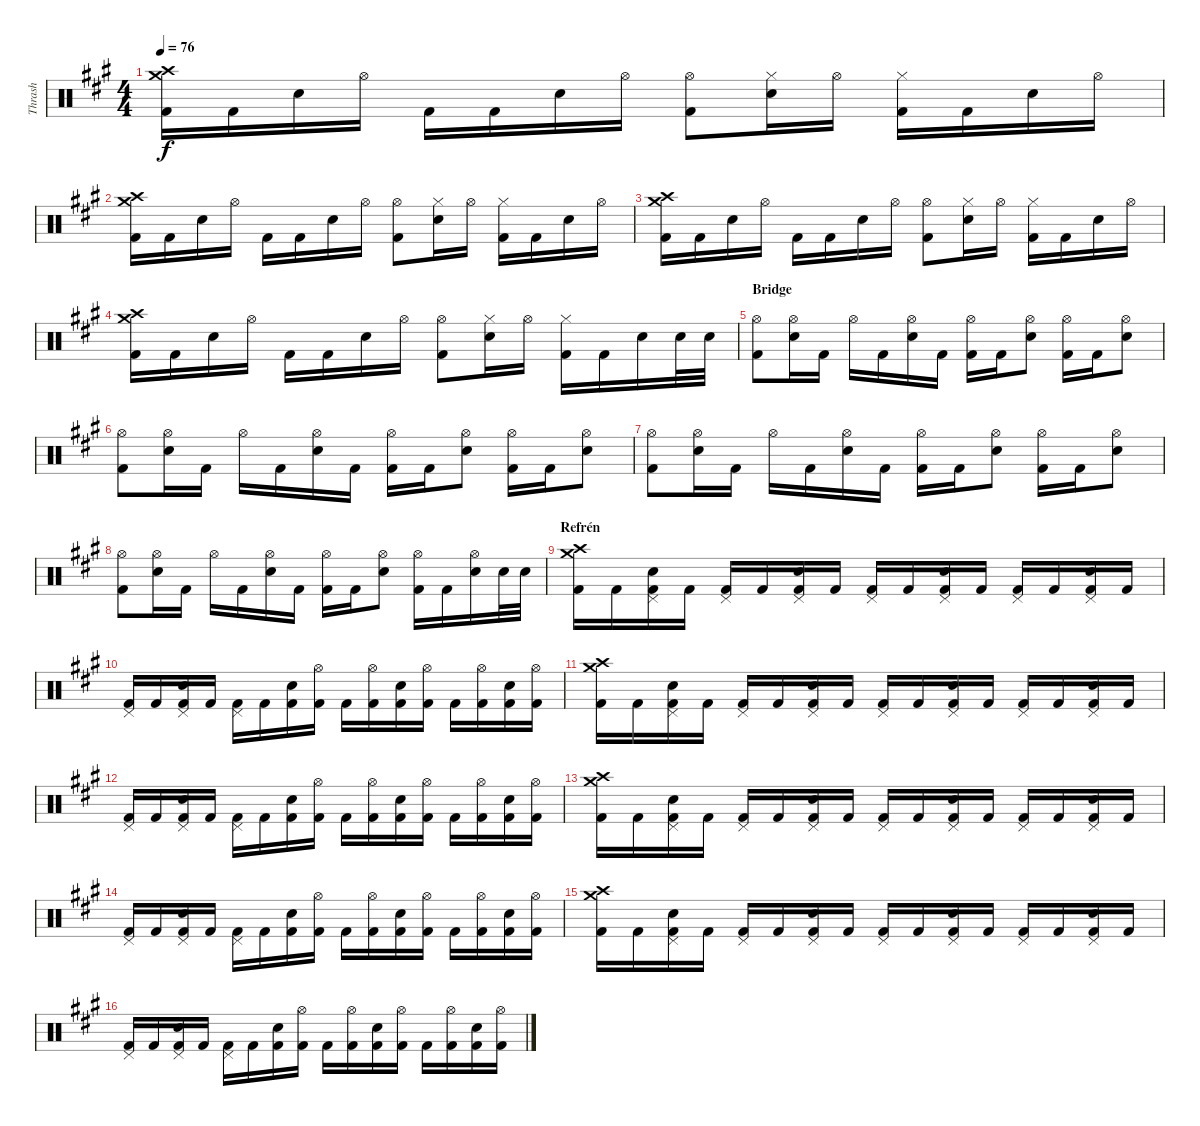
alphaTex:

\track ("Thrash" "Thrash") {instrument percussion}
\staff {score}
\articulation defaults
\ts (4 4)
\tempo 76
\clef neutral
\ks a
("Crash medium (hit)" "Crash high (hit)" "Kick (hit) 2").16{dy f} "Kick (hit) 2".16 "Snare (hit) 2".16 "Hi-Hat (open)".16 "Kick (hit) 2".16 "Kick (hit) 2".16 "Snare (hit) 2".16 "Hi-Hat (open)".16 ("Hi-Hat (open)" "Kick (hit) 2").8 ("Hi-Hat (closed)" "Snare (hit) 2").16 "Hi-Hat (open)".16 ("Hi-Hat (closed)" "Kick (hit) 2").16 "Kick (hit) 2".16 "Snare (hit) 2".16 "Hi-Hat (open)".16 |
("Crash medium (hit)" "Crash high (hit)" "Kick (hit) 2").16 "Kick (hit) 2".16 "Snare (hit) 2".16 "Hi-Hat (open)".16 "Kick (hit) 2".16 "Kick (hit) 2".16 "Snare (hit) 2".16 "Hi-Hat (open)".16 ("Hi-Hat (open)" "Kick (hit) 2").8 ("Hi-Hat (closed)" "Snare (hit) 2").16 "Hi-Hat (open)".16 ("Hi-Hat (closed)" "Kick (hit) 2").16 "Kick (hit) 2".16 "Snare (hit) 2".16 "Hi-Hat (open)".16 |
("Crash medium (hit)" "Crash high (hit)" "Kick (hit) 2").16 "Kick (hit) 2".16 "Snare (hit) 2".16 "Hi-Hat (open)".16 "Kick (hit) 2".16 "Kick (hit) 2".16 "Snare (hit) 2".16 "Hi-Hat (open)".16 ("Hi-Hat (open)" "Kick (hit) 2").8 ("Hi-Hat (closed)" "Snare (hit) 2").16 "Hi-Hat (open)".16 ("Hi-Hat (closed)" "Kick (hit) 2").16 "Kick (hit) 2".16 "Snare (hit) 2".16 "Hi-Hat (open)".16 |
("Crash medium (hit)" "Crash high (hit)" "Kick (hit) 2").16 "Kick (hit) 2".16 "Snare (hit) 2".16 "Hi-Hat (open)".16 "Kick (hit) 2".16 "Kick (hit) 2".16 "Snare (hit) 2".16 "Hi-Hat (open)".16 ("Hi-Hat (open)" "Kick (hit) 2").8 ("Hi-Hat (closed)" "Snare (hit) 2").16 "Hi-Hat (open)".16 ("Hi-Hat (closed)" "Kick (hit) 2").16 "Kick (hit) 2".16 "Snare (hit) 2".16 "Snare (hit) 2".32 "Snare (hit) 2".32 |
\section ("" "Bridge")
("Hi-Hat (open)" "Kick (hit) 2").8 ("Hi-Hat (open)" "Snare (hit) 2").16 "Kick (hit) 2".16 "Hi-Hat (open)".16 "Kick (hit) 2".16 ("Hi-Hat (open)" "Snare (hit) 2").16 "Kick (hit) 2".16 ("Hi-Hat (open)" "Kick (hit) 2").16 "Kick (hit) 2".16 ("Hi-Hat (open)" "Snare (hit) 2").8 ("Hi-Hat (open)" "Kick (hit) 2").16 "Kick (hit) 2".16 ("Hi-Hat (open)" "Snare (hit) 2").8 |
("Hi-Hat (open)" "Kick (hit) 2").8 ("Hi-Hat (open)" "Snare (hit) 2").16 "Kick (hit) 2".16 "Hi-Hat (open)".16 "Kick (hit) 2".16 ("Hi-Hat (open)" "Snare (hit) 2").16 "Kick (hit) 2".16 ("Hi-Hat (open)" "Kick (hit) 2").16 "Kick (hit) 2".16 ("Hi-Hat (open)" "Snare (hit) 2").8 ("Hi-Hat (open)" "Kick (hit) 2").16 "Kick (hit) 2".16 ("Hi-Hat (open)" "Snare (hit) 2").8 |
("Hi-Hat (open)" "Kick (hit) 2").8 ("Hi-Hat (open)" "Snare (hit) 2").16 "Kick (hit) 2".16 "Hi-Hat (open)".16 "Kick (hit) 2".16 ("Hi-Hat (open)" "Snare (hit) 2").16 "Kick (hit) 2".16 ("Hi-Hat (open)" "Kick (hit) 2").16 "Kick (hit) 2".16 ("Hi-Hat (open)" "Snare (hit) 2").8 ("Hi-Hat (open)" "Kick (hit) 2").16 "Kick (hit) 2".16 ("Hi-Hat (open)" "Snare (hit) 2").8 |
("Hi-Hat (open)" "Kick (hit) 2").8 ("Hi-Hat (open)" "Snare (hit) 2").16 "Kick (hit) 2".16 "Hi-Hat (open)".16 "Kick (hit) 2".16 ("Hi-Hat (open)" "Snare (hit) 2").16 "Kick (hit) 2".16 ("Hi-Hat (open)" "Kick (hit) 2").16 "Kick (hit) 2".16 ("Hi-Hat (open)" "Snare (hit) 2").8 ("Hi-Hat (open)" "Kick (hit) 2").16 "Kick (hit) 2".16 ("Hi-Hat (open)" "Snare (hit) 2").16 "Snare (hit) 2".32 "Snare (hit) 2".32 |
\section ("" "Refrén")
("Crash medium (hit)" "Crash high (hit)" "Kick (hit) 2").16 "Kick (hit) 2".16 ("Pedal Hi-Hat (hit)" "Snare (hit) 2" "Kick (hit) 2").16 "Kick (hit) 2".16 ("Pedal Hi-Hat (hit)" "Kick (hit) 2").16 "Kick (hit) 2".16 ("Pedal Hi-Hat (hit)" "Snare (hit) 2" "Kick (hit) 2").16 "Kick (hit) 2".16 ("Pedal Hi-Hat (hit)" "Kick (hit) 2").16 "Kick (hit) 2".16 ("Pedal Hi-Hat (hit)" "Snare (hit) 2" "Kick (hit) 2").16 "Kick (hit) 2".16 ("Pedal Hi-Hat (hit)" "Kick (hit) 2").16 "Kick (hit) 2".16 ("Pedal Hi-Hat (hit)" "Snare (hit) 2" "Kick (hit) 2").16 "Kick (hit) 2".16 |
("Pedal Hi-Hat (hit)" "Kick (hit) 2").16 "Kick (hit) 2".16 ("Pedal Hi-Hat (hit)" "Snare (hit) 2" "Kick (hit) 2").16 "Kick (hit) 2".16 ("Pedal Hi-Hat (hit)" "Kick (hit) 2").16 "Kick (hit) 2".16 ("Snare (hit) 2" "Kick (hit) 2").16 ("Hi-Hat (open)" "Kick (hit) 2").16 "Kick (hit) 2".16 ("Hi-Hat (open)" "Kick (hit) 2").16 ("Snare (hit) 2" "Kick (hit) 2").16 ("Hi-Hat (open)" "Kick (hit) 2").16 "Kick (hit) 2".16 ("Hi-Hat (open)" "Kick (hit) 2").16 ("Snare (hit) 2" "Kick (hit) 2").16 ("Hi-Hat (open)" "Kick (hit) 2").16 |
("Crash medium (hit)" "Crash high (hit)" "Kick (hit) 2").16 "Kick (hit) 2".16 ("Pedal Hi-Hat (hit)" "Snare (hit) 2" "Kick (hit) 2").16 "Kick (hit) 2".16 ("Pedal Hi-Hat (hit)" "Kick (hit) 2").16 "Kick (hit) 2".16 ("Pedal Hi-Hat (hit)" "Snare (hit) 2" "Kick (hit) 2").16 "Kick (hit) 2".16 ("Pedal Hi-Hat (hit)" "Kick (hit) 2").16 "Kick (hit) 2".16 ("Pedal Hi-Hat (hit)" "Snare (hit) 2" "Kick (hit) 2").16 "Kick (hit) 2".16 ("Pedal Hi-Hat (hit)" "Kick (hit) 2").16 "Kick (hit) 2".16 ("Pedal Hi-Hat (hit)" "Snare (hit) 2" "Kick (hit) 2").16 "Kick (hit) 2".16 |
("Pedal Hi-Hat (hit)" "Kick (hit) 2").16 "Kick (hit) 2".16 ("Pedal Hi-Hat (hit)" "Snare (hit) 2" "Kick (hit) 2").16 "Kick (hit) 2".16 ("Pedal Hi-Hat (hit)" "Kick (hit) 2").16 "Kick (hit) 2".16 ("Snare (hit) 2" "Kick (hit) 2").16 ("Hi-Hat (open)" "Kick (hit) 2").16 "Kick (hit) 2".16 ("Hi-Hat (open)" "Kick (hit) 2").16 ("Snare (hit) 2" "Kick (hit) 2").16 ("Hi-Hat (open)" "Kick (hit) 2").16 "Kick (hit) 2".16 ("Hi-Hat (open)" "Kick (hit) 2").16 ("Snare (hit) 2" "Kick (hit) 2").16 ("Hi-Hat (open)" "Kick (hit) 2").16 |
("Crash medium (hit)" "Crash high (hit)" "Kick (hit) 2").16 "Kick (hit) 2".16 ("Pedal Hi-Hat (hit)" "Snare (hit) 2" "Kick (hit) 2").16 "Kick (hit) 2".16 ("Pedal Hi-Hat (hit)" "Kick (hit) 2").16 "Kick (hit) 2".16 ("Pedal Hi-Hat (hit)" "Snare (hit) 2" "Kick (hit) 2").16 "Kick (hit) 2".16 ("Pedal Hi-Hat (hit)" "Kick (hit) 2").16 "Kick (hit) 2".16 ("Pedal Hi-Hat (hit)" "Snare (hit) 2" "Kick (hit) 2").16 "Kick (hit) 2".16 ("Pedal Hi-Hat (hit)" "Kick (hit) 2").16 "Kick (hit) 2".16 ("Pedal Hi-Hat (hit)" "Snare (hit) 2" "Kick (hit) 2").16 "Kick (hit) 2".16 |
("Pedal Hi-Hat (hit)" "Kick (hit) 2").16 "Kick (hit) 2".16 ("Pedal Hi-Hat (hit)" "Snare (hit) 2" "Kick (hit) 2").16 "Kick (hit) 2".16 ("Pedal Hi-Hat (hit)" "Kick (hit) 2").16 "Kick (hit) 2".16 ("Snare (hit) 2" "Kick (hit) 2").16 ("Hi-Hat (open)" "Kick (hit) 2").16 "Kick (hit) 2".16 ("Hi-Hat (open)" "Kick (hit) 2").16 ("Snare (hit) 2" "Kick (hit) 2").16 ("Hi-Hat (open)" "Kick (hit) 2").16 "Kick (hit) 2".16 ("Hi-Hat (open)" "Kick (hit) 2").16 ("Snare (hit) 2" "Kick (hit) 2").16 ("Hi-Hat (open)" "Kick (hit) 2").16 |
("Crash medium (hit)" "Crash high (hit)" "Kick (hit) 2").16 "Kick (hit) 2".16 ("Pedal Hi-Hat (hit)" "Snare (hit) 2" "Kick (hit) 2").16 "Kick (hit) 2".16 ("Pedal Hi-Hat (hit)" "Kick (hit) 2").16 "Kick (hit) 2".16 ("Pedal Hi-Hat (hit)" "Snare (hit) 2" "Kick (hit) 2").16 "Kick (hit) 2".16 ("Pedal Hi-Hat (hit)" "Kick (hit) 2").16 "Kick (hit) 2".16 ("Pedal Hi-Hat (hit)" "Snare (hit) 2" "Kick (hit) 2").16 "Kick (hit) 2".16 ("Pedal Hi-Hat (hit)" "Kick (hit) 2").16 "Kick (hit) 2".16 ("Pedal Hi-Hat (hit)" "Snare (hit) 2" "Kick (hit) 2").16 "Kick (hit) 2".16 |
("Pedal Hi-Hat (hit)" "Kick (hit) 2").16 "Kick (hit) 2".16 ("Pedal Hi-Hat (hit)" "Snare (hit) 2" "Kick (hit) 2").16 "Kick (hit) 2".16 ("Pedal Hi-Hat (hit)" "Kick (hit) 2").16 "Kick (hit) 2".16 ("Snare (hit) 2" "Kick (hit) 2").16 ("Hi-Hat (open)" "Kick (hit) 2").16 "Kick (hit) 2".16 ("Hi-Hat (open)" "Kick (hit) 2").16 ("Snare (hit) 2" "Kick (hit) 2").16 ("Hi-Hat (open)" "Kick (hit) 2").16 "Kick (hit) 2".16 ("Hi-Hat (open)" "Kick (hit) 2").16 ("Snare (hit) 2" "Kick (hit) 2").16 ("Hi-Hat (open)" "Kick (hit) 2").16
